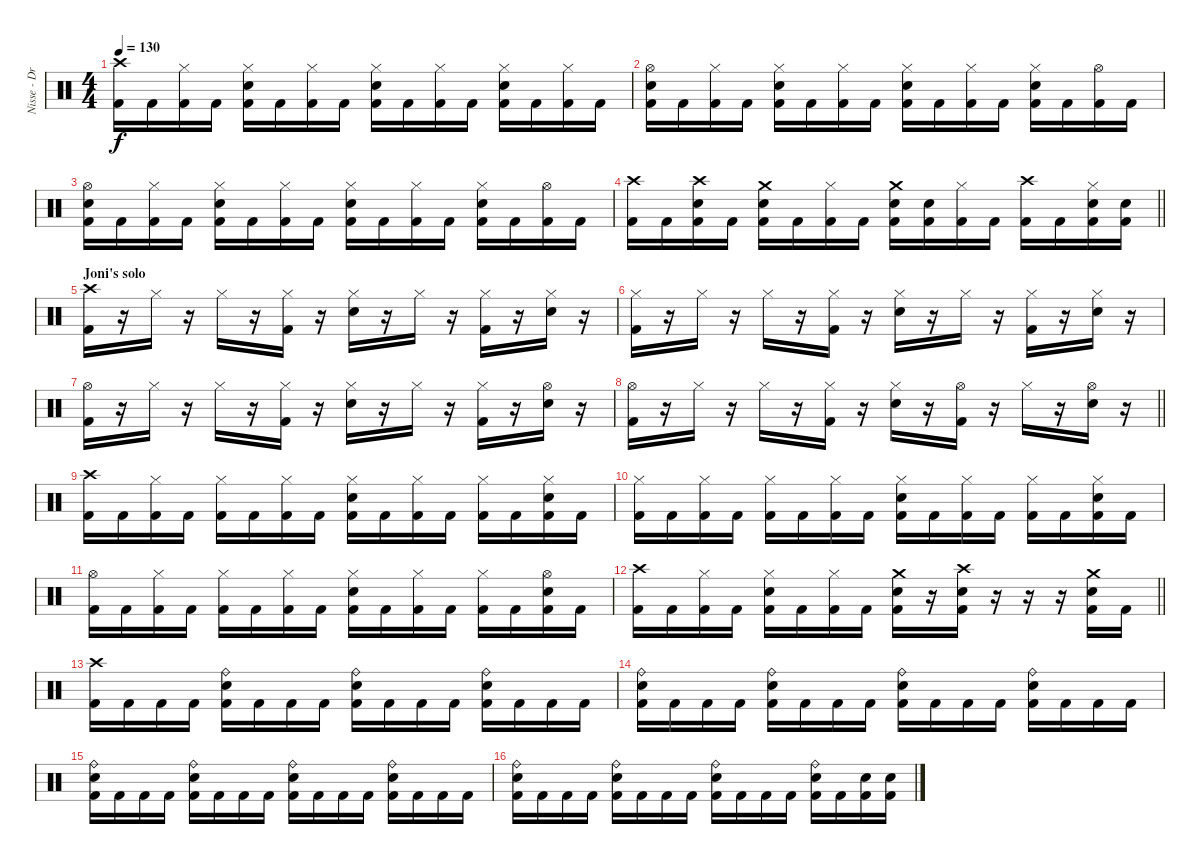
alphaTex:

\track ("Nisse - Drums" "Nisse - Dr") {instrument percussion}
\staff {score}
\articulation defaults
\ts (4 4)
\tempo 130
\clef neutral
\ks c
("Crash high (hit)" "Kick (hit) 2").16{dy f} "Kick (hit) 2".16 ("Hi-Hat (closed)" "Kick (hit) 2").16 "Kick (hit) 2".16 ("Hi-Hat (closed)" "Electric Snare (hit)" "Kick (hit) 2").16 "Kick (hit) 2".16 ("Hi-Hat (closed)" "Kick (hit) 2").16 "Kick (hit) 2".16 ("Hi-Hat (closed)" "Electric Snare (hit)" "Kick (hit) 2").16 "Kick (hit) 2".16 ("Hi-Hat (closed)" "Kick (hit) 2").16 "Kick (hit) 2".16 ("Hi-Hat (closed)" "Electric Snare (hit)" "Kick (hit) 2").16 "Kick (hit) 2".16 ("Hi-Hat (closed)" "Kick (hit) 2").16 "Kick (hit) 2".16 |
("Hi-Hat (open)" "Electric Snare (hit)" "Kick (hit) 2").16 "Kick (hit) 2".16 ("Hi-Hat (closed)" "Kick (hit) 2").16 "Kick (hit) 2".16 ("Hi-Hat (closed)" "Electric Snare (hit)" "Kick (hit) 2").16 "Kick (hit) 2".16 ("Hi-Hat (closed)" "Kick (hit) 2").16 "Kick (hit) 2".16 ("Hi-Hat (closed)" "Electric Snare (hit)" "Kick (hit) 2").16 "Kick (hit) 2".16 ("Hi-Hat (closed)" "Kick (hit) 2").16 "Kick (hit) 2".16 ("Hi-Hat (closed)" "Electric Snare (hit)" "Kick (hit) 2").16 "Kick (hit) 2".16 ("Hi-Hat (open)" "Kick (hit) 2").16 "Kick (hit) 2".16 |
("Hi-Hat (open)" "Electric Snare (hit)" "Kick (hit) 2").16 "Kick (hit) 2".16 ("Hi-Hat (closed)" "Kick (hit) 2").16 "Kick (hit) 2".16 ("Hi-Hat (closed)" "Electric Snare (hit)" "Kick (hit) 2").16 "Kick (hit) 2".16 ("Hi-Hat (closed)" "Kick (hit) 2").16 "Kick (hit) 2".16 ("Hi-Hat (closed)" "Electric Snare (hit)" "Kick (hit) 2").16 "Kick (hit) 2".16 ("Hi-Hat (closed)" "Kick (hit) 2").16 "Kick (hit) 2".16 ("Hi-Hat (closed)" "Electric Snare (hit)" "Kick (hit) 2").16 "Kick (hit) 2".16 ("Hi-Hat (open)" "Kick (hit) 2").16 "Kick (hit) 2".16 |
\barLineRight lightlight
("Crash high (hit)" "Kick (hit) 2").16 "Kick (hit) 2".16 ("Crash high (hit)" "Electric Snare (hit)" "Kick (hit) 2").16 "Kick (hit) 2".16 ("Crash medium (hit)" "Electric Snare (hit)" "Kick (hit) 2").16 "Kick (hit) 2".16 ("Hi-Hat (closed)" "Kick (hit) 2").16 "Kick (hit) 2".16 ("Crash medium (hit)" "Electric Snare (hit)" "Kick (hit) 2").16 ("Electric Snare (hit)" "Kick (hit) 2").16 ("Hi-Hat (closed)" "Kick (hit) 2").16 "Kick (hit) 2".16 ("Crash high (hit)" "Kick (hit) 2").16 "Kick (hit) 2".16 ("Hi-Hat (closed)" "Electric Snare (hit)" "Kick (hit) 2").16 ("Electric Snare (hit)" "Kick (hit) 2").16 |
\section ("" "Joni's solo")
("Crash high (hit)" "Kick (hit) 2").16 r.16 "Hi-Hat (closed)".16 r.16 "Hi-Hat (closed)".16 r.16 ("Hi-Hat (closed)" "Kick (hit) 2").16 r.16 ("Hi-Hat (closed)" "Electric Snare (hit)").16 r.16 "Hi-Hat (closed)".16 r.16 ("Hi-Hat (closed)" "Kick (hit) 2").16 r.16 ("Hi-Hat (closed)" "Electric Snare (hit)").16 r.16 |
("Hi-Hat (closed)" "Kick (hit) 2").16 r.16 "Hi-Hat (closed)".16 r.16 "Hi-Hat (closed)".16 r.16 ("Hi-Hat (closed)" "Kick (hit) 2").16 r.16 ("Hi-Hat (closed)" "Electric Snare (hit)").16 r.16 "Hi-Hat (closed)".16 r.16 ("Hi-Hat (closed)" "Kick (hit) 2").16 r.16 ("Hi-Hat (closed)" "Electric Snare (hit)").16 r.16 |
("Hi-Hat (open)" "Kick (hit) 2").16 r.16 "Hi-Hat (closed)".16 r.16 "Hi-Hat (closed)".16 r.16 ("Hi-Hat (closed)" "Kick (hit) 2").16 r.16 ("Hi-Hat (closed)" "Electric Snare (hit)").16 r.16 "Hi-Hat (closed)".16 r.16 ("Hi-Hat (closed)" "Kick (hit) 2").16 r.16 ("Hi-Hat (open)" "Electric Snare (hit)").16 r.16 |
\barLineRight lightlight
("Hi-Hat (open)" "Kick (hit) 2").16 r.16 "Hi-Hat (closed)".16 r.16 "Hi-Hat (closed)".16 r.16 ("Hi-Hat (closed)" "Kick (hit) 2").16 r.16 ("Hi-Hat (closed)" "Electric Snare (hit)").16 r.16 ("Hi-Hat (open)" "Kick (hit) 2").16 r.16 "Hi-Hat (closed)".16 r.16 ("Hi-Hat (open)" "Electric Snare (hit)").16 r.16 |
("Crash high (hit)" "Kick (hit) 2").16 "Kick (hit) 2".16 ("Hi-Hat (closed)" "Kick (hit) 2").16 "Kick (hit) 2".16 ("Hi-Hat (closed)" "Kick (hit) 2").16 "Kick (hit) 2".16 ("Hi-Hat (closed)" "Kick (hit) 2").16 "Kick (hit) 2".16 ("Hi-Hat (closed)" "Electric Snare (hit)" "Kick (hit) 2").16 "Kick (hit) 2".16 ("Hi-Hat (closed)" "Kick (hit) 2").16 "Kick (hit) 2".16 ("Hi-Hat (closed)" "Kick (hit) 2").16 "Kick (hit) 2".16 ("Hi-Hat (closed)" "Electric Snare (hit)" "Kick (hit) 2").16 "Kick (hit) 2".16 |
("Hi-Hat (closed)" "Kick (hit) 2").16 "Kick (hit) 2".16 ("Hi-Hat (closed)" "Kick (hit) 2").16 "Kick (hit) 2".16 ("Hi-Hat (closed)" "Kick (hit) 2").16 "Kick (hit) 2".16 ("Hi-Hat (closed)" "Kick (hit) 2").16 "Kick (hit) 2".16 ("Hi-Hat (closed)" "Electric Snare (hit)" "Kick (hit) 2").16 "Kick (hit) 2".16 ("Hi-Hat (closed)" "Kick (hit) 2").16 "Kick (hit) 2".16 ("Hi-Hat (closed)" "Kick (hit) 2").16 "Kick (hit) 2".16 ("Hi-Hat (closed)" "Electric Snare (hit)" "Kick (hit) 2").16 "Kick (hit) 2".16 |
("Hi-Hat (open)" "Kick (hit) 2").16 "Kick (hit) 2".16 ("Hi-Hat (closed)" "Kick (hit) 2").16 "Kick (hit) 2".16 ("Hi-Hat (closed)" "Kick (hit) 2").16 "Kick (hit) 2".16 ("Hi-Hat (closed)" "Kick (hit) 2").16 "Kick (hit) 2".16 ("Hi-Hat (closed)" "Electric Snare (hit)" "Kick (hit) 2").16 "Kick (hit) 2".16 ("Hi-Hat (closed)" "Kick (hit) 2").16 "Kick (hit) 2".16 ("Hi-Hat (closed)" "Kick (hit) 2").16 "Kick (hit) 2".16 ("Hi-Hat (open)" "Electric Snare (hit)" "Kick (hit) 2").16 "Kick (hit) 2".16 |
\barLineRight lightlight
("Crash high (hit)" "Kick (hit) 2").16 "Kick (hit) 2".16 ("Hi-Hat (closed)" "Kick (hit) 2").16 "Kick (hit) 2".16 ("Hi-Hat (closed)" "Electric Snare (hit)" "Kick (hit) 2").16 "Kick (hit) 2".16 ("Hi-Hat (closed)" "Kick (hit) 2").16 "Kick (hit) 2".16 ("Crash medium (hit)" "Electric Snare (hit)" "Kick (hit) 2").16 r.16 ("Crash high (hit)" "Electric Snare (hit)" "Kick (hit) 2").16 r.16 r.16 r.16 ("Crash medium (hit)" "Electric Snare (hit)" "Kick (hit) 2").16 "Kick (hit) 2".16 |
("Crash high (hit)" "Kick (hit) 2").16 "Kick (hit) 2".16 "Kick (hit) 2".16 "Kick (hit) 2".16 ("Ride (bell)" "Electric Snare (hit)" "Kick (hit) 2").16 "Kick (hit) 2".16 "Kick (hit) 2".16 "Kick (hit) 2".16 ("Ride (bell)" "Electric Snare (hit)" "Kick (hit) 2").16 "Kick (hit) 2".16 "Kick (hit) 2".16 "Kick (hit) 2".16 ("Ride (bell)" "Electric Snare (hit)" "Kick (hit) 2").16 "Kick (hit) 2".16 "Kick (hit) 2".16 "Kick (hit) 2".16 |
("Ride (bell)" "Electric Snare (hit)" "Kick (hit) 2").16 "Kick (hit) 2".16 "Kick (hit) 2".16 "Kick (hit) 2".16 ("Ride (bell)" "Electric Snare (hit)" "Kick (hit) 2").16 "Kick (hit) 2".16 "Kick (hit) 2".16 "Kick (hit) 2".16 ("Ride (bell)" "Electric Snare (hit)" "Kick (hit) 2").16 "Kick (hit) 2".16 "Kick (hit) 2".16 "Kick (hit) 2".16 ("Ride (bell)" "Electric Snare (hit)" "Kick (hit) 2").16 "Kick (hit) 2".16 "Kick (hit) 2".16 "Kick (hit) 2".16 |
("Ride (bell)" "Electric Snare (hit)" "Kick (hit) 2").16 "Kick (hit) 2".16 "Kick (hit) 2".16 "Kick (hit) 2".16 ("Ride (bell)" "Electric Snare (hit)" "Kick (hit) 2").16 "Kick (hit) 2".16 "Kick (hit) 2".16 "Kick (hit) 2".16 ("Ride (bell)" "Electric Snare (hit)" "Kick (hit) 2").16 "Kick (hit) 2".16 "Kick (hit) 2".16 "Kick (hit) 2".16 ("Ride (bell)" "Electric Snare (hit)" "Kick (hit) 2").16 "Kick (hit) 2".16 "Kick (hit) 2".16 "Kick (hit) 2".16 |
("Ride (bell)" "Electric Snare (hit)" "Kick (hit) 2").16 "Kick (hit) 2".16 "Kick (hit) 2".16 "Kick (hit) 2".16 ("Ride (bell)" "Electric Snare (hit)" "Kick (hit) 2").16 "Kick (hit) 2".16 "Kick (hit) 2".16 "Kick (hit) 2".16 ("Ride (bell)" "Electric Snare (hit)" "Kick (hit) 2").16 "Kick (hit) 2".16 "Kick (hit) 2".16 "Kick (hit) 2".16 ("Ride (bell)" "Electric Snare (hit)" "Kick (hit) 2").16 "Kick (hit) 2".16 ("Electric Snare (hit)" "Kick (hit) 2").16 ("Electric Snare (hit)" "Kick (hit) 2").16
